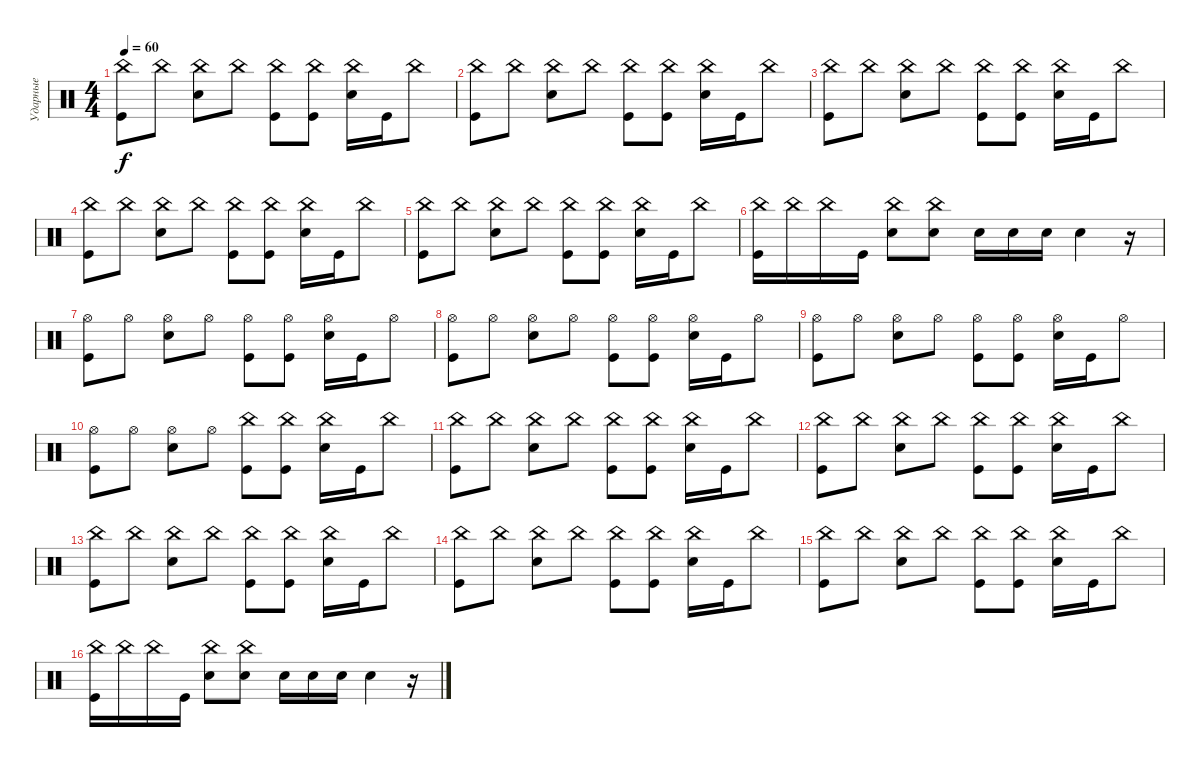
\track ("Ударные" "Ударные") {instrument percussion}
\staff {score}
\articulation defaults
\ts (4 4)
\tempo 60
\clef neutral
\ks c
("China (hit)" "Kick (hit)").8{dy f} "China (hit)".8 ("China (hit)" "Electric Snare (hit)").8 "China (hit)".8 ("China (hit)" "Kick (hit)").8 ("China (hit)" "Kick (hit)").8 ("China (hit)" "Electric Snare (hit)").16 "Kick (hit)".16 "China (hit)".8 |
("China (hit)" "Kick (hit)").8 "China (hit)".8 ("China (hit)" "Electric Snare (hit)").8 "China (hit)".8 ("China (hit)" "Kick (hit)").8 ("China (hit)" "Kick (hit)").8 ("China (hit)" "Electric Snare (hit)").16 "Kick (hit)".16 "China (hit)".8 |
("China (hit)" "Kick (hit)").8 "China (hit)".8 ("China (hit)" "Electric Snare (hit)").8 "China (hit)".8 ("China (hit)" "Kick (hit)").8 ("China (hit)" "Kick (hit)").8 ("China (hit)" "Electric Snare (hit)").16 "Kick (hit)".16 "China (hit)".8 |
("China (hit)" "Kick (hit)").8 "China (hit)".8 ("China (hit)" "Electric Snare (hit)").8 "China (hit)".8 ("China (hit)" "Kick (hit)").8 ("China (hit)" "Kick (hit)").8 ("China (hit)" "Electric Snare (hit)").16 "Kick (hit)".16 "China (hit)".8 |
("China (hit)" "Kick (hit)").8 "China (hit)".8 ("China (hit)" "Electric Snare (hit)").8 "China (hit)".8 ("China (hit)" "Kick (hit)").8 ("China (hit)" "Kick (hit)").8 ("China (hit)" "Electric Snare (hit)").16 "Kick (hit)".16 "China (hit)".8 |
("China (hit)" "Kick (hit)").16 "China (hit)".16 "China (hit)".16 "Kick (hit)".16 ("China (hit)" "Electric Snare (hit)").8 ("China (hit)" "Electric Snare (hit)").8 "Electric Snare (hit)".16 "Electric Snare (hit)".16 "Electric Snare (hit)".16 "Electric Snare (hit)".4 r.16 |
("Hi-Hat (open)" "Kick (hit)").8 "Hi-Hat (open)".8 ("Hi-Hat (open)" "Electric Snare (hit)").8 "Hi-Hat (open)".8 ("Hi-Hat (open)" "Kick (hit)").8 ("Hi-Hat (open)" "Kick (hit)").8 ("Hi-Hat (open)" "Electric Snare (hit)").16 "Kick (hit)".16 "Hi-Hat (open)".8 |
("Hi-Hat (open)" "Kick (hit)").8 "Hi-Hat (open)".8 ("Hi-Hat (open)" "Electric Snare (hit)").8 "Hi-Hat (open)".8 ("Hi-Hat (open)" "Kick (hit)").8 ("Hi-Hat (open)" "Kick (hit)").8 ("Hi-Hat (open)" "Electric Snare (hit)").16 "Kick (hit)".16 "Hi-Hat (open)".8 |
("Hi-Hat (open)" "Kick (hit)").8 "Hi-Hat (open)".8 ("Hi-Hat (open)" "Electric Snare (hit)").8 "Hi-Hat (open)".8 ("Hi-Hat (open)" "Kick (hit)").8 ("Hi-Hat (open)" "Kick (hit)").8 ("Hi-Hat (open)" "Electric Snare (hit)").16 "Kick (hit)".16 "Hi-Hat (open)".8 |
("Hi-Hat (open)" "Kick (hit)").8 "Hi-Hat (open)".8 ("Hi-Hat (open)" "Electric Snare (hit)").8 "Hi-Hat (open)".8 ("China (hit)" "Kick (hit)").8 ("China (hit)" "Kick (hit)").8 ("China (hit)" "Electric Snare (hit)").16 "Kick (hit)".16 "China (hit)".8 |
("China (hit)" "Kick (hit)").8 "China (hit)".8 ("China (hit)" "Electric Snare (hit)").8 "China (hit)".8 ("China (hit)" "Kick (hit)").8 ("China (hit)" "Kick (hit)").8 ("China (hit)" "Electric Snare (hit)").16 "Kick (hit)".16 "China (hit)".8 |
("China (hit)" "Kick (hit)").8 "China (hit)".8 ("China (hit)" "Electric Snare (hit)").8 "China (hit)".8 ("China (hit)" "Kick (hit)").8 ("China (hit)" "Kick (hit)").8 ("China (hit)" "Electric Snare (hit)").16 "Kick (hit)".16 "China (hit)".8 |
("China (hit)" "Kick (hit)").8 "China (hit)".8 ("China (hit)" "Electric Snare (hit)").8 "China (hit)".8 ("China (hit)" "Kick (hit)").8 ("China (hit)" "Kick (hit)").8 ("China (hit)" "Electric Snare (hit)").16 "Kick (hit)".16 "China (hit)".8 |
("China (hit)" "Kick (hit)").8 "China (hit)".8 ("China (hit)" "Electric Snare (hit)").8 "China (hit)".8 ("China (hit)" "Kick (hit)").8 ("China (hit)" "Kick (hit)").8 ("China (hit)" "Electric Snare (hit)").16 "Kick (hit)".16 "China (hit)".8 |
("China (hit)" "Kick (hit)").8 "China (hit)".8 ("China (hit)" "Electric Snare (hit)").8 "China (hit)".8 ("China (hit)" "Kick (hit)").8 ("China (hit)" "Kick (hit)").8 ("China (hit)" "Electric Snare (hit)").16 "Kick (hit)".16 "China (hit)".8 |
("China (hit)" "Kick (hit)").16 "China (hit)".16 "China (hit)".16 "Kick (hit)".16 ("China (hit)" "Electric Snare (hit)").8 ("China (hit)" "Electric Snare (hit)").8 "Electric Snare (hit)".16 "Electric Snare (hit)".16 "Electric Snare (hit)".16 "Electric Snare (hit)".4 r.16
